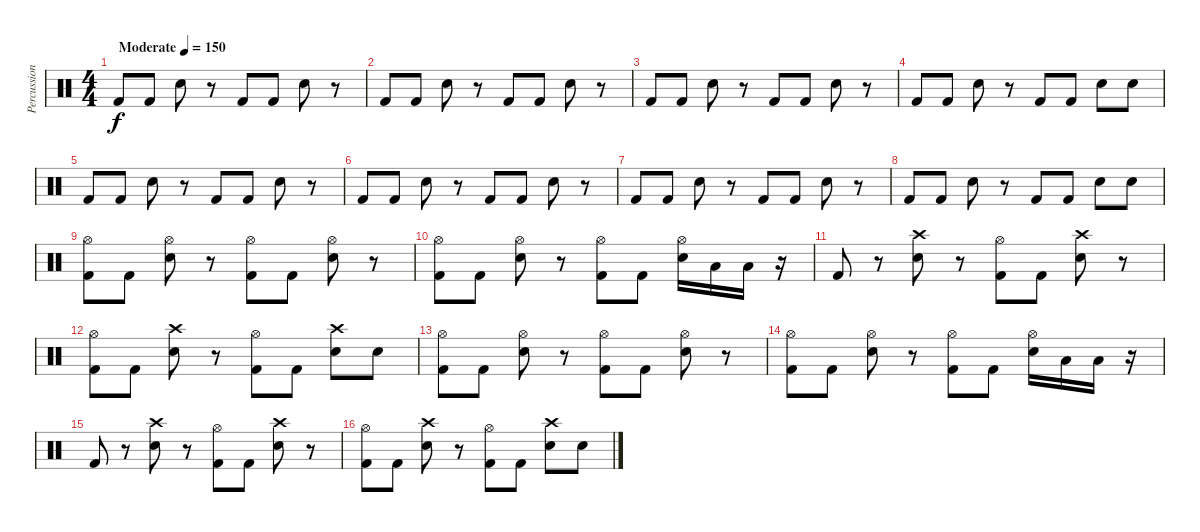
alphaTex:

\track ("Percussion" "Percussion") {instrument percussion}
\staff {score}
\articulation defaults
\ts (4 4)
\tempo (150 "Moderate")
\clef neutral
\ks c "Kick (hit) 2".8{dy f volume 0} "Kick (hit) 2".8{volume 6} "Snare (hit) 2".8
r.8 "Kick (hit) 2".8 "Kick (hit) 2".8 "Snare (hit) 2".8 r.8 |
"Kick (hit) 2".8 "Kick (hit) 2".8 "Snare (hit) 2".8 r.8 "Kick (hit) 2".8 "Kick (hit) 2".8 "Snare (hit) 2".8 r.8 |
"Kick (hit) 2".8 "Kick (hit) 2".8 "Snare (hit) 2".8 r.8 "Kick (hit) 2".8 "Kick (hit) 2".8 "Snare (hit) 2".8 r.8 |
"Kick (hit) 2".8 "Kick (hit) 2".8 "Snare (hit) 2".8 r.8 "Kick (hit) 2".8 "Kick (hit) 2".8 "Snare (hit) 2".8 "Snare (hit) 2".8 |
"Kick (hit) 2".8{volume 11} "Kick (hit) 2".8 "Snare (hit) 2".8 r.8 "Kick (hit) 2".8 "Kick (hit) 2".8 "Snare (hit) 2".8 r.8 |
"Kick (hit) 2".8 "Kick (hit) 2".8 "Snare (hit) 2".8 r.8 "Kick (hit) 2".8 "Kick (hit) 2".8 "Snare (hit) 2".8 r.8 |
"Kick (hit) 2".8 "Kick (hit) 2".8 "Snare (hit) 2".8 r.8 "Kick (hit) 2".8 "Kick (hit) 2".8 "Snare (hit) 2".8 r.8 |
"Kick (hit) 2".8 "Kick (hit) 2".8 "Snare (hit) 2".8 r.8 "Kick (hit) 2".8 "Kick (hit) 2".8 "Snare (hit) 2".8 "Snare (hit) 2".8 |
("Hi-Hat (open)" "Kick (hit) 2").8{volume 14} "Kick (hit) 2".8 ("Hi-Hat (open)" "Snare (hit) 2").8 r.8 ("Hi-Hat (open)" "Kick (hit) 2").8 "Kick (hit) 2".8 ("Hi-Hat (open)" "Snare (hit) 2").8 r.8 |
("Hi-Hat (open)" "Kick (hit) 2").8 "Kick (hit) 2".8 ("Hi-Hat (open)" "Snare (hit) 2").8 r.8 ("Hi-Hat (open)" "Kick (hit) 2").8 "Kick (hit) 2".8 ("Hi-Hat (open)" "Snare (hit) 2").16 "Low Tom (hit)".16 "Low Tom (hit)".16 r.16 |
"Kick (hit) 2".8 r.8 ("Crash high (hit)" "Snare (hit) 2").8 r.8 ("Hi-Hat (open)" "Kick (hit) 2").8 "Kick (hit) 2".8 ("Crash high (hit)" "Snare (hit) 2").8 r.8 |
("Hi-Hat (open)" "Kick (hit) 2").8 "Kick (hit) 2".8 ("Crash high (hit)" "Snare (hit) 2").8 r.8 ("Hi-Hat (open)" "Kick (hit) 2").8 "Kick (hit) 2".8 ("Crash high (hit)" "Snare (hit) 2").8 "Snare (hit) 2".8 |
("Hi-Hat (open)" "Kick (hit) 2").8 "Kick (hit) 2".8 ("Hi-Hat (open)" "Snare (hit) 2").8 r.8 ("Hi-Hat (open)" "Kick (hit) 2").8 "Kick (hit) 2".8 ("Hi-Hat (open)" "Snare (hit) 2").8 r.8 |
("Hi-Hat (open)" "Kick (hit) 2").8 "Kick (hit) 2".8 ("Hi-Hat (open)" "Snare (hit) 2").8 r.8 ("Hi-Hat (open)" "Kick (hit) 2").8 "Kick (hit) 2".8 ("Hi-Hat (open)" "Snare (hit) 2").16 "Low Tom (hit)".16 "Low Tom (hit)".16 r.16 |
"Kick (hit) 2".8 r.8 ("Crash high (hit)" "Snare (hit) 2").8 r.8 ("Hi-Hat (open)" "Kick (hit) 2").8 "Kick (hit) 2".8 ("Crash high (hit)" "Snare (hit) 2").8 r.8 |
("Hi-Hat (open)" "Kick (hit) 2").8 "Kick (hit) 2".8 ("Crash high (hit)" "Snare (hit) 2").8 r.8 ("Hi-Hat (open)" "Kick (hit) 2").8 "Kick (hit) 2".8 ("Crash high (hit)" "Snare (hit) 2").8 "Snare (hit) 2".8
